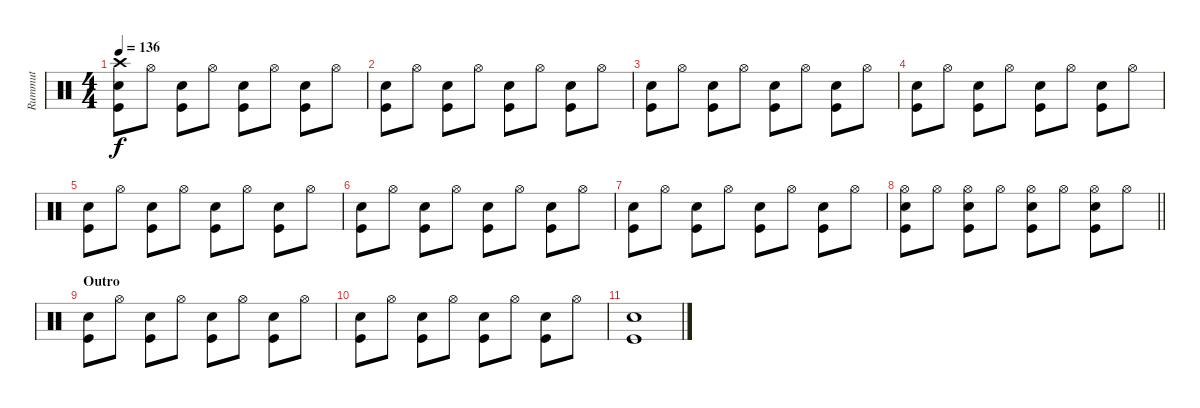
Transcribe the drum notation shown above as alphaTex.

\track ("Rummut" "Rummut") {instrument percussion}
\staff {score}
\articulation defaults
\ts (4 4)
\tempo 136
\clef neutral
\ks c
("Crash high (hit)" "Electric Snare (hit)" "Kick (hit)").8{dy f} "Hi-Hat (open)".8 ("Electric Snare (hit)" "Kick (hit)").8 "Hi-Hat (open)".8 ("Electric Snare (hit)" "Kick (hit)").8 "Hi-Hat (open)".8 ("Electric Snare (hit)" "Kick (hit)").8 "Hi-Hat (open)".8 |
("Electric Snare (hit)" "Kick (hit)").8 "Hi-Hat (open)".8 ("Electric Snare (hit)" "Kick (hit)").8 "Hi-Hat (open)".8 ("Electric Snare (hit)" "Kick (hit)").8 "Hi-Hat (open)".8 ("Electric Snare (hit)" "Kick (hit)").8 "Hi-Hat (open)".8 |
("Electric Snare (hit)" "Kick (hit)").8 "Hi-Hat (open)".8 ("Electric Snare (hit)" "Kick (hit)").8 "Hi-Hat (open)".8 ("Electric Snare (hit)" "Kick (hit)").8 "Hi-Hat (open)".8 ("Electric Snare (hit)" "Kick (hit)").8 "Hi-Hat (open)".8 |
("Electric Snare (hit)" "Kick (hit)").8 "Hi-Hat (open)".8 ("Electric Snare (hit)" "Kick (hit)").8 "Hi-Hat (open)".8 ("Electric Snare (hit)" "Kick (hit)").8 "Hi-Hat (open)".8 ("Electric Snare (hit)" "Kick (hit)").8 "Hi-Hat (open)".8 |
("Electric Snare (hit)" "Kick (hit)").8 "Hi-Hat (open)".8 ("Electric Snare (hit)" "Kick (hit)").8 "Hi-Hat (open)".8 ("Electric Snare (hit)" "Kick (hit)").8 "Hi-Hat (open)".8 ("Electric Snare (hit)" "Kick (hit)").8 "Hi-Hat (open)".8 |
("Electric Snare (hit)" "Kick (hit)").8 "Hi-Hat (open)".8 ("Electric Snare (hit)" "Kick (hit)").8 "Hi-Hat (open)".8 ("Electric Snare (hit)" "Kick (hit)").8 "Hi-Hat (open)".8 ("Electric Snare (hit)" "Kick (hit)").8 "Hi-Hat (open)".8 |
("Electric Snare (hit)" "Kick (hit)").8 "Hi-Hat (open)".8 ("Electric Snare (hit)" "Kick (hit)").8 "Hi-Hat (open)".8 ("Electric Snare (hit)" "Kick (hit)").8 "Hi-Hat (open)".8 ("Electric Snare (hit)" "Kick (hit)").8 "Hi-Hat (open)".8 |
\barLineRight lightlight
("Hi-Hat (open)" "Electric Snare (hit)" "Kick (hit)").8 "Hi-Hat (open)".8 ("Hi-Hat (open)" "Electric Snare (hit)" "Kick (hit)").8 "Hi-Hat (open)".8 ("Hi-Hat (open)" "Electric Snare (hit)" "Kick (hit)").8 "Hi-Hat (open)".8 ("Hi-Hat (open)" "Electric Snare (hit)" "Kick (hit)").8 "Hi-Hat (open)".8 |
\section ("" "Outro")
("Electric Snare (hit)" "Kick (hit)").8 "Hi-Hat (open)".8 ("Electric Snare (hit)" "Kick (hit)").8 "Hi-Hat (open)".8 ("Electric Snare (hit)" "Kick (hit)").8 "Hi-Hat (open)".8 ("Electric Snare (hit)" "Kick (hit)").8 "Hi-Hat (open)".8 |
("Electric Snare (hit)" "Kick (hit)").8 "Hi-Hat (open)".8 ("Electric Snare (hit)" "Kick (hit)").8 "Hi-Hat (open)".8 ("Electric Snare (hit)" "Kick (hit)").8 "Hi-Hat (open)".8 ("Electric Snare (hit)" "Kick (hit)").8 "Hi-Hat (open)".8 |
("Electric Snare (hit)" "Kick (hit)").1
